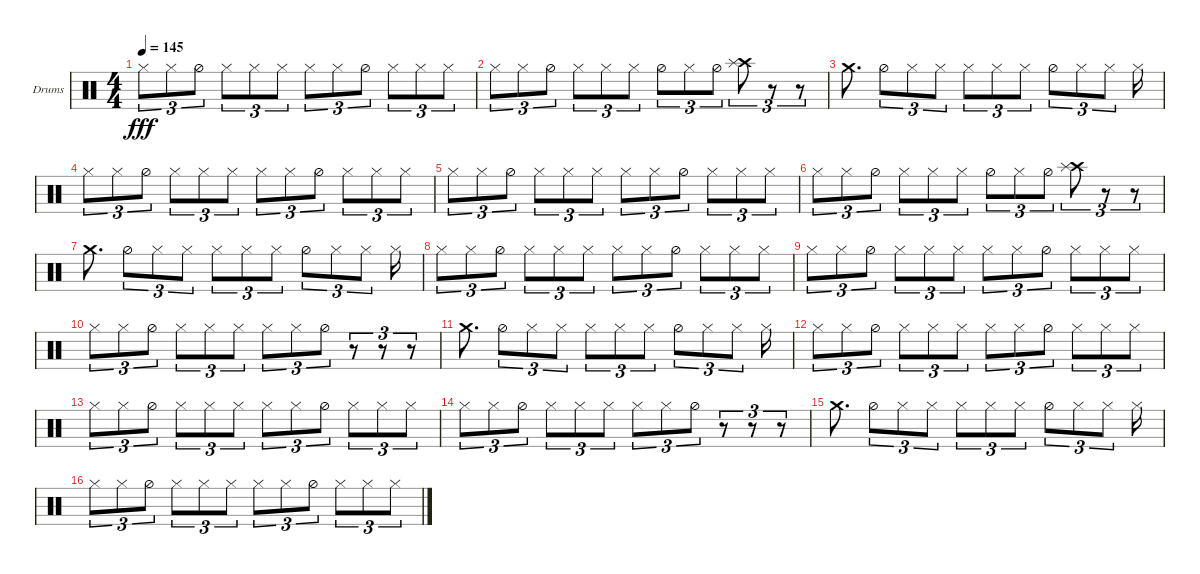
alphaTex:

\defaultSystemsLayout 4
\bracketExtendMode groupsimilarinstruments
\firstSystemTrackNameOrientation horizontal
\otherSystemsTrackNameOrientation horizontal
\track ("Helders" "Drums") {instrument percussion}
\staff {score}
\articulation defaults
\ts (4 4)
\tempo 145
\clef neutral
\ks c "Hi-Hat (closed)".8{tu (3 2) dy fff} "Hi-Hat (closed)".8{tu (3 2)} "Hi-Hat (half)".8{tu (3 2)} "Hi-Hat (closed)".8{tu (3 2)} "Hi-Hat (closed)".8{tu (3 2)} "Hi-Hat (closed)".8{tu (3 2)} "Hi-Hat (closed)".8{tu (3 2)} "Hi-Hat (closed)".8{tu (3 2)} "Hi-Hat (half)".8{tu (3 2)} "Hi-Hat (closed)".8{tu (3 2)} "Hi-Hat (closed)".8{tu (3 2)} "Hi-Hat (closed)".8{tu (3 2)}
|
"Hi-Hat (closed)".8{tu (3 2)} "Hi-Hat (closed)".8{tu (3 2)} "Hi-Hat (half)".8{tu (3 2)} "Hi-Hat (closed)".8{tu (3 2)} "Hi-Hat (closed)".8{tu (3 2)} "Hi-Hat (closed)".8{tu (3 2)} "Hi-Hat (half)".8{tu (3 2)} "Hi-Hat (closed)".8{tu (3 2)} "Hi-Hat (half)".8{tu (3 2)} ("Crash high (hit)" "Splash (hit)").8{tu (3 2)} r.8{tu (3 2)} r.8{tu (3 2)} |
"Crash medium (hit)".8{d} "Hi-Hat (half)".8{tu (3 2)} "Hi-Hat (closed)".8{tu (3 2)} "Hi-Hat (closed)".8{tu (3 2)} "Hi-Hat (closed)".8{tu (3 2)} "Hi-Hat (closed)".8{tu (3 2)} "Hi-Hat (closed)".8{tu (3 2)} "Hi-Hat (half)".8{tu (3 2)} "Hi-Hat (closed)".8{tu (3 2)} "Hi-Hat (closed)".8{tu (3 2)} "Hi-Hat (closed)".16 |
"Hi-Hat (closed)".8{tu (3 2)} "Hi-Hat (closed)".8{tu (3 2)} "Hi-Hat (half)".8{tu (3 2)} "Hi-Hat (closed)".8{tu (3 2)} "Hi-Hat (closed)".8{tu (3 2)} "Hi-Hat (closed)".8{tu (3 2)} "Hi-Hat (closed)".8{tu (3 2)} "Hi-Hat (closed)".8{tu (3 2)} "Hi-Hat (half)".8{tu (3 2)} "Hi-Hat (closed)".8{tu (3 2)} "Hi-Hat (closed)".8{tu (3 2)} "Hi-Hat (closed)".8{tu (3 2)} |
"Hi-Hat (closed)".8{tu (3 2)} "Hi-Hat (closed)".8{tu (3 2)} "Hi-Hat (half)".8{tu (3 2)} "Hi-Hat (closed)".8{tu (3 2)} "Hi-Hat (closed)".8{tu (3 2)} "Hi-Hat (closed)".8{tu (3 2)} "Hi-Hat (closed)".8{tu (3 2)} "Hi-Hat (closed)".8{tu (3 2)} "Hi-Hat (half)".8{tu (3 2)} "Hi-Hat (closed)".8{tu (3 2)} "Hi-Hat (closed)".8{tu (3 2)} "Hi-Hat (closed)".8{tu (3 2)} |
"Hi-Hat (closed)".8{tu (3 2)} "Hi-Hat (closed)".8{tu (3 2)} "Hi-Hat (half)".8{tu (3 2)} "Hi-Hat (closed)".8{tu (3 2)} "Hi-Hat (closed)".8{tu (3 2)} "Hi-Hat (closed)".8{tu (3 2)} "Hi-Hat (half)".8{tu (3 2)} "Hi-Hat (closed)".8{tu (3 2)} "Hi-Hat (half)".8{tu (3 2)} ("Crash high (hit)" "Splash (hit)").8{tu (3 2)} r.8{tu (3 2)} r.8{tu (3 2)} |
"Crash medium (hit)".8{d} "Hi-Hat (half)".8{tu (3 2)} "Hi-Hat (closed)".8{tu (3 2)} "Hi-Hat (closed)".8{tu (3 2)} "Hi-Hat (closed)".8{tu (3 2)} "Hi-Hat (closed)".8{tu (3 2)} "Hi-Hat (closed)".8{tu (3 2)} "Hi-Hat (half)".8{tu (3 2)} "Hi-Hat (closed)".8{tu (3 2)} "Hi-Hat (closed)".8{tu (3 2)} "Hi-Hat (closed)".16 |
"Hi-Hat (closed)".8{tu (3 2)} "Hi-Hat (closed)".8{tu (3 2)} "Hi-Hat (half)".8{tu (3 2)} "Hi-Hat (closed)".8{tu (3 2)} "Hi-Hat (closed)".8{tu (3 2)} "Hi-Hat (closed)".8{tu (3 2)} "Hi-Hat (closed)".8{tu (3 2)} "Hi-Hat (closed)".8{tu (3 2)} "Hi-Hat (half)".8{tu (3 2)} "Hi-Hat (closed)".8{tu (3 2)} "Hi-Hat (closed)".8{tu (3 2)} "Hi-Hat (closed)".8{tu (3 2)} |
"Hi-Hat (closed)".8{tu (3 2)} "Hi-Hat (closed)".8{tu (3 2)} "Hi-Hat (half)".8{tu (3 2)} "Hi-Hat (closed)".8{tu (3 2)} "Hi-Hat (closed)".8{tu (3 2)} "Hi-Hat (closed)".8{tu (3 2)} "Hi-Hat (closed)".8{tu (3 2)} "Hi-Hat (closed)".8{tu (3 2)} "Hi-Hat (half)".8{tu (3 2)} "Hi-Hat (closed)".8{tu (3 2)} "Hi-Hat (closed)".8{tu (3 2)} "Hi-Hat (closed)".8{tu (3 2)} |
"Hi-Hat (closed)".8{tu (3 2)} "Hi-Hat (closed)".8{tu (3 2)} "Hi-Hat (half)".8{tu (3 2)} "Hi-Hat (closed)".8{tu (3 2)} "Hi-Hat (closed)".8{tu (3 2)} "Hi-Hat (closed)".8{tu (3 2)} "Hi-Hat (closed)".8{tu (3 2)} "Hi-Hat (closed)".8{tu (3 2)} "Hi-Hat (half)".8{tu (3 2)} r.8{tu (3 2)} r.8{tu (3 2)} r.8{tu (3 2)} |
"Crash medium (hit)".8{d} "Hi-Hat (half)".8{tu (3 2)} "Hi-Hat (closed)".8{tu (3 2)} "Hi-Hat (closed)".8{tu (3 2)} "Hi-Hat (closed)".8{tu (3 2)} "Hi-Hat (closed)".8{tu (3 2)} "Hi-Hat (closed)".8{tu (3 2)} "Hi-Hat (half)".8{tu (3 2)} "Hi-Hat (closed)".8{tu (3 2)} "Hi-Hat (closed)".8{tu (3 2)} "Hi-Hat (closed)".16 |
"Hi-Hat (closed)".8{tu (3 2)} "Hi-Hat (closed)".8{tu (3 2)} "Hi-Hat (half)".8{tu (3 2)} "Hi-Hat (closed)".8{tu (3 2)} "Hi-Hat (closed)".8{tu (3 2)} "Hi-Hat (closed)".8{tu (3 2)} "Hi-Hat (closed)".8{tu (3 2)} "Hi-Hat (closed)".8{tu (3 2)} "Hi-Hat (half)".8{tu (3 2)} "Hi-Hat (closed)".8{tu (3 2)} "Hi-Hat (closed)".8{tu (3 2)} "Hi-Hat (closed)".8{tu (3 2)} |
"Hi-Hat (closed)".8{tu (3 2)} "Hi-Hat (closed)".8{tu (3 2)} "Hi-Hat (half)".8{tu (3 2)} "Hi-Hat (closed)".8{tu (3 2)} "Hi-Hat (closed)".8{tu (3 2)} "Hi-Hat (closed)".8{tu (3 2)} "Hi-Hat (closed)".8{tu (3 2)} "Hi-Hat (closed)".8{tu (3 2)} "Hi-Hat (half)".8{tu (3 2)} "Hi-Hat (closed)".8{tu (3 2)} "Hi-Hat (closed)".8{tu (3 2)} "Hi-Hat (closed)".8{tu (3 2)} |
"Hi-Hat (closed)".8{tu (3 2)} "Hi-Hat (closed)".8{tu (3 2)} "Hi-Hat (half)".8{tu (3 2)} "Hi-Hat (closed)".8{tu (3 2)} "Hi-Hat (closed)".8{tu (3 2)} "Hi-Hat (closed)".8{tu (3 2)} "Hi-Hat (closed)".8{tu (3 2)} "Hi-Hat (closed)".8{tu (3 2)} "Hi-Hat (half)".8{tu (3 2)} r.8{tu (3 2)} r.8{tu (3 2)} r.8{tu (3 2)} |
"Crash medium (hit)".8{d} "Hi-Hat (half)".8{tu (3 2)} "Hi-Hat (closed)".8{tu (3 2)} "Hi-Hat (closed)".8{tu (3 2)} "Hi-Hat (closed)".8{tu (3 2)} "Hi-Hat (closed)".8{tu (3 2)} "Hi-Hat (closed)".8{tu (3 2)} "Hi-Hat (half)".8{tu (3 2)} "Hi-Hat (closed)".8{tu (3 2)} "Hi-Hat (closed)".8{tu (3 2)} "Hi-Hat (closed)".16 |
"Hi-Hat (closed)".8{tu (3 2)} "Hi-Hat (closed)".8{tu (3 2)} "Hi-Hat (half)".8{tu (3 2)} "Hi-Hat (closed)".8{tu (3 2)} "Hi-Hat (closed)".8{tu (3 2)} "Hi-Hat (closed)".8{tu (3 2)} "Hi-Hat (closed)".8{tu (3 2)} "Hi-Hat (closed)".8{tu (3 2)} "Hi-Hat (half)".8{tu (3 2)} "Hi-Hat (closed)".8{tu (3 2)} "Hi-Hat (closed)".8{tu (3 2)} "Hi-Hat (closed)".8{tu (3 2)}
